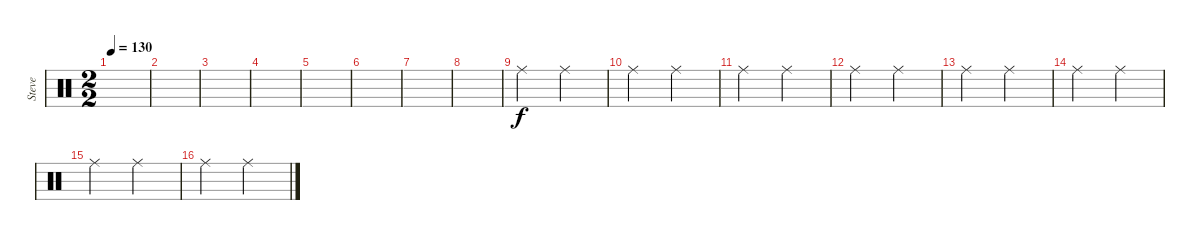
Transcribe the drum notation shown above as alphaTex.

\track ("Steve" "Steve") {instrument percussion}
\staff {score}
\articulation defaults
\ts (2 2)
\tempo 130
\clef neutral
\ks c
|
|
|
|
|
|
|
|
"Ride (middle)".2 "Ride (middle)".2 |
"Ride (middle)".2 "Ride (middle)".2 |
"Ride (middle)".2 "Ride (middle)".2 |
"Ride (middle)".2 "Ride (middle)".2 |
"Ride (middle)".2 "Ride (middle)".2 |
"Ride (middle)".2 "Ride (middle)".2 |
"Ride (middle)".2 "Ride (middle)".2 |
"Ride (middle)".2 "Ride (middle)".2
